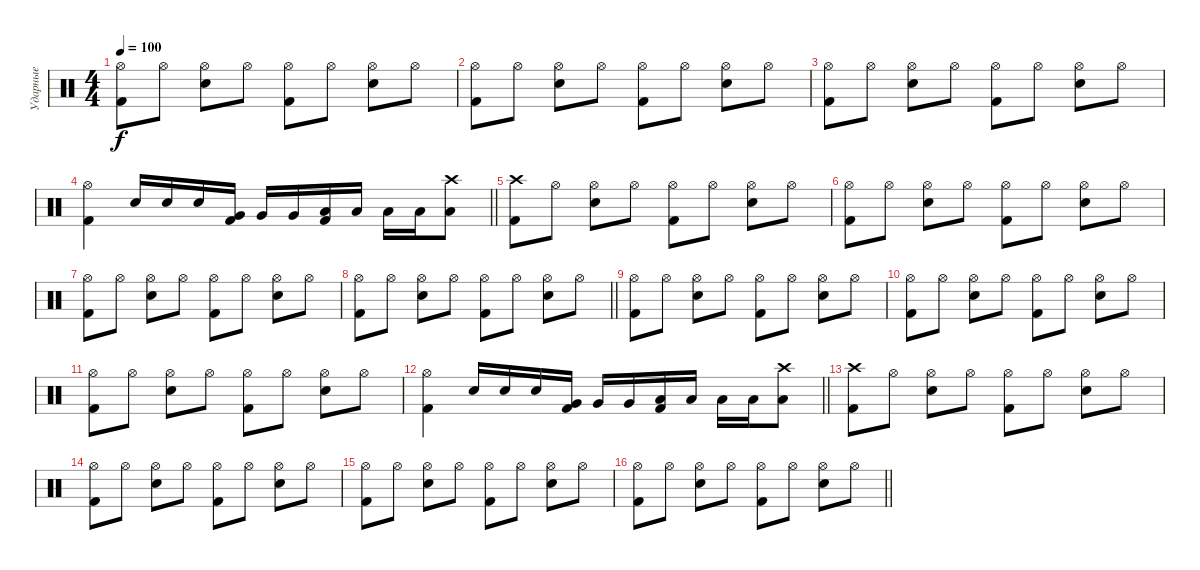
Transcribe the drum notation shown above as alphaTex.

\track ("Ударные" "Ударные") {instrument percussion}
\staff {score}
\articulation defaults
\ts (4 4)
\tempo 100
\clef neutral
\ks c
("Hi-Hat (open)" "Kick (hit) 2").8{dy f} "Hi-Hat (open)".8 ("Hi-Hat (open)" "Electric Snare (hit)").8 "Hi-Hat (open)".8 ("Hi-Hat (open)" "Kick (hit) 2").8 "Hi-Hat (open)".8 ("Hi-Hat (open)" "Electric Snare (hit)").8 "Hi-Hat (open)".8 |
("Hi-Hat (open)" "Kick (hit) 2").8 "Hi-Hat (open)".8 ("Hi-Hat (open)" "Electric Snare (hit)").8 "Hi-Hat (open)".8 ("Hi-Hat (open)" "Kick (hit) 2").8 "Hi-Hat (open)".8 ("Hi-Hat (open)" "Electric Snare (hit)").8 "Hi-Hat (open)".8 |
("Hi-Hat (open)" "Kick (hit) 2").8 "Hi-Hat (open)".8 ("Hi-Hat (open)" "Electric Snare (hit)").8 "Hi-Hat (open)".8 ("Hi-Hat (open)" "Kick (hit) 2").8 "Hi-Hat (open)".8 ("Hi-Hat (open)" "Electric Snare (hit)").8 "Hi-Hat (open)".8 |
\barLineRight lightlight
("Hi-Hat (open)" "Kick (hit) 2").4 "Electric Snare (hit)".16 "Electric Snare (hit)".16 "Electric Snare (hit)".16 ("Very Low Tom (hit)" "Kick (hit) 2").16 "Very Low Tom (hit)".16 "Very Low Tom (hit)".16 ("Low Tom (hit)" "Kick (hit) 2").16 "Low Tom (hit)".16 "Low Tom (hit)".16 "Low Tom (hit)".16 ("Crash high (hit)" "Low Tom (hit)").8 |
("Crash high (hit)" "Kick (hit) 2").8 "Hi-Hat (open)".8 ("Hi-Hat (open)" "Electric Snare (hit)").8 "Hi-Hat (open)".8 ("Hi-Hat (open)" "Kick (hit) 2").8 "Hi-Hat (open)".8 ("Hi-Hat (open)" "Electric Snare (hit)").8 "Hi-Hat (open)".8 |
("Hi-Hat (open)" "Kick (hit) 2").8 "Hi-Hat (open)".8 ("Hi-Hat (open)" "Electric Snare (hit)").8 "Hi-Hat (open)".8 ("Hi-Hat (open)" "Kick (hit) 2").8 "Hi-Hat (open)".8 ("Hi-Hat (open)" "Electric Snare (hit)").8 "Hi-Hat (open)".8 |
("Hi-Hat (open)" "Kick (hit) 2").8 "Hi-Hat (open)".8 ("Hi-Hat (open)" "Electric Snare (hit)").8 "Hi-Hat (open)".8 ("Hi-Hat (open)" "Kick (hit) 2").8 "Hi-Hat (open)".8 ("Hi-Hat (open)" "Electric Snare (hit)").8 "Hi-Hat (open)".8 |
\barLineRight lightlight
("Hi-Hat (open)" "Kick (hit) 2").8 "Hi-Hat (open)".8 ("Hi-Hat (open)" "Electric Snare (hit)").8 "Hi-Hat (open)".8 ("Hi-Hat (open)" "Kick (hit) 2").8 "Hi-Hat (open)".8 ("Hi-Hat (open)" "Electric Snare (hit)").8 "Hi-Hat (open)".8 |
("Hi-Hat (open)" "Kick (hit) 2").8 "Hi-Hat (open)".8 ("Hi-Hat (open)" "Electric Snare (hit)").8 "Hi-Hat (open)".8 ("Hi-Hat (open)" "Kick (hit) 2").8 "Hi-Hat (open)".8 ("Hi-Hat (open)" "Electric Snare (hit)").8 "Hi-Hat (open)".8 |
("Hi-Hat (open)" "Kick (hit) 2").8 "Hi-Hat (open)".8 ("Hi-Hat (open)" "Electric Snare (hit)").8 "Hi-Hat (open)".8 ("Hi-Hat (open)" "Kick (hit) 2").8 "Hi-Hat (open)".8 ("Hi-Hat (open)" "Electric Snare (hit)").8 "Hi-Hat (open)".8 |
("Hi-Hat (open)" "Kick (hit) 2").8 "Hi-Hat (open)".8 ("Hi-Hat (open)" "Electric Snare (hit)").8 "Hi-Hat (open)".8 ("Hi-Hat (open)" "Kick (hit) 2").8 "Hi-Hat (open)".8 ("Hi-Hat (open)" "Electric Snare (hit)").8 "Hi-Hat (open)".8 |
\barLineRight lightlight
("Hi-Hat (open)" "Kick (hit) 2").4 "Electric Snare (hit)".16 "Electric Snare (hit)".16 "Electric Snare (hit)".16 ("Very Low Tom (hit)" "Kick (hit) 2").16 "Very Low Tom (hit)".16 "Very Low Tom (hit)".16 ("Low Tom (hit)" "Kick (hit) 2").16 "Low Tom (hit)".16 "Low Tom (hit)".16 "Low Tom (hit)".16 ("Crash high (hit)" "Low Tom (hit)").8 |
("Crash high (hit)" "Kick (hit) 2").8 "Hi-Hat (open)".8 ("Hi-Hat (open)" "Electric Snare (hit)").8 "Hi-Hat (open)".8 ("Hi-Hat (open)" "Kick (hit) 2").8 "Hi-Hat (open)".8 ("Hi-Hat (open)" "Electric Snare (hit)").8 "Hi-Hat (open)".8 |
("Hi-Hat (open)" "Kick (hit) 2").8 "Hi-Hat (open)".8 ("Hi-Hat (open)" "Electric Snare (hit)").8 "Hi-Hat (open)".8 ("Hi-Hat (open)" "Kick (hit) 2").8 "Hi-Hat (open)".8 ("Hi-Hat (open)" "Electric Snare (hit)").8 "Hi-Hat (open)".8 |
("Hi-Hat (open)" "Kick (hit) 2").8 "Hi-Hat (open)".8 ("Hi-Hat (open)" "Electric Snare (hit)").8 "Hi-Hat (open)".8 ("Hi-Hat (open)" "Kick (hit) 2").8 "Hi-Hat (open)".8 ("Hi-Hat (open)" "Electric Snare (hit)").8 "Hi-Hat (open)".8 |
\barLineRight lightlight
("Hi-Hat (open)" "Kick (hit) 2").8 "Hi-Hat (open)".8 ("Hi-Hat (open)" "Electric Snare (hit)").8 "Hi-Hat (open)".8 ("Hi-Hat (open)" "Kick (hit) 2").8 "Hi-Hat (open)".8 ("Hi-Hat (open)" "Electric Snare (hit)").8 "Hi-Hat (open)".8
